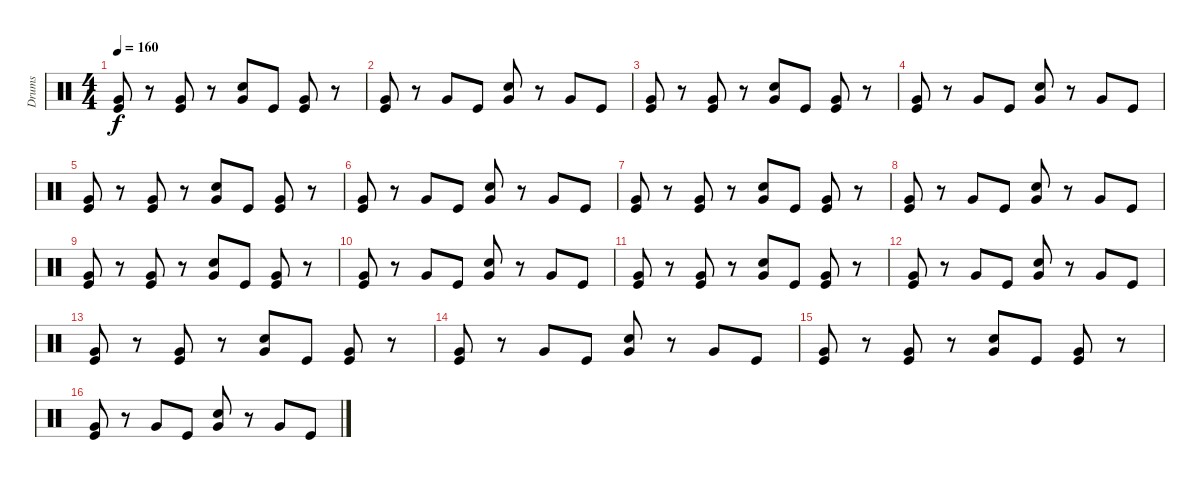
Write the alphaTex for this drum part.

\track ("Drums" "Drums") {instrument percussion}
\staff {score}
\articulation defaults
\ts (4 4)
\tempo 160
\clef neutral
\ks c
("Very Low Tom (hit)" "Kick (hit)").8{dy f} r.8 ("Very Low Tom (hit)" "Kick (hit)").8 r.8 ("Very Low Tom (hit)" "Electric Snare (hit)").8 "Kick (hit)".8 ("Very Low Tom (hit)" "Kick (hit)").8 r.8 |
("Very Low Tom (hit)" "Kick (hit)").8 r.8 "Very Low Tom (hit)".8 "Kick (hit)".8 ("Very Low Tom (hit)" "Electric Snare (hit)").8 r.8 "Very Low Tom (hit)".8 "Kick (hit)".8 |
("Very Low Tom (hit)" "Kick (hit)").8 r.8 ("Very Low Tom (hit)" "Kick (hit)").8 r.8 ("Very Low Tom (hit)" "Electric Snare (hit)").8 "Kick (hit)".8 ("Very Low Tom (hit)" "Kick (hit)").8 r.8 |
("Very Low Tom (hit)" "Kick (hit)").8 r.8 "Very Low Tom (hit)".8 "Kick (hit)".8 ("Very Low Tom (hit)" "Electric Snare (hit)").8 r.8 "Very Low Tom (hit)".8 "Kick (hit)".8 |
("Very Low Tom (hit)" "Kick (hit)").8 r.8 ("Very Low Tom (hit)" "Kick (hit)").8 r.8 ("Very Low Tom (hit)" "Electric Snare (hit)").8 "Kick (hit)".8 ("Very Low Tom (hit)" "Kick (hit)").8 r.8 |
("Very Low Tom (hit)" "Kick (hit)").8 r.8 "Very Low Tom (hit)".8 "Kick (hit)".8 ("Very Low Tom (hit)" "Electric Snare (hit)").8 r.8 "Very Low Tom (hit)".8 "Kick (hit)".8 |
("Very Low Tom (hit)" "Kick (hit)").8 r.8 ("Very Low Tom (hit)" "Kick (hit)").8 r.8 ("Very Low Tom (hit)" "Electric Snare (hit)").8 "Kick (hit)".8 ("Very Low Tom (hit)" "Kick (hit)").8 r.8 |
("Very Low Tom (hit)" "Kick (hit)").8 r.8 "Very Low Tom (hit)".8 "Kick (hit)".8 ("Very Low Tom (hit)" "Electric Snare (hit)").8 r.8 "Very Low Tom (hit)".8 "Kick (hit)".8 |
("Very Low Tom (hit)" "Kick (hit)").8 r.8 ("Very Low Tom (hit)" "Kick (hit)").8 r.8 ("Very Low Tom (hit)" "Electric Snare (hit)").8 "Kick (hit)".8 ("Very Low Tom (hit)" "Kick (hit)").8 r.8 |
("Very Low Tom (hit)" "Kick (hit)").8 r.8 "Very Low Tom (hit)".8 "Kick (hit)".8 ("Very Low Tom (hit)" "Electric Snare (hit)").8 r.8 "Very Low Tom (hit)".8 "Kick (hit)".8 |
("Very Low Tom (hit)" "Kick (hit)").8 r.8 ("Very Low Tom (hit)" "Kick (hit)").8 r.8 ("Very Low Tom (hit)" "Electric Snare (hit)").8 "Kick (hit)".8 ("Very Low Tom (hit)" "Kick (hit)").8 r.8 |
("Very Low Tom (hit)" "Kick (hit)").8 r.8 "Very Low Tom (hit)".8 "Kick (hit)".8 ("Very Low Tom (hit)" "Electric Snare (hit)").8 r.8 "Very Low Tom (hit)".8 "Kick (hit)".8 |
("Very Low Tom (hit)" "Kick (hit)").8 r.8 ("Very Low Tom (hit)" "Kick (hit)").8 r.8 ("Very Low Tom (hit)" "Electric Snare (hit)").8 "Kick (hit)".8 ("Very Low Tom (hit)" "Kick (hit)").8 r.8 |
("Very Low Tom (hit)" "Kick (hit)").8 r.8 "Very Low Tom (hit)".8 "Kick (hit)".8 ("Very Low Tom (hit)" "Electric Snare (hit)").8 r.8 "Very Low Tom (hit)".8 "Kick (hit)".8 |
("Very Low Tom (hit)" "Kick (hit)").8 r.8 ("Very Low Tom (hit)" "Kick (hit)").8 r.8 ("Very Low Tom (hit)" "Electric Snare (hit)").8 "Kick (hit)".8 ("Very Low Tom (hit)" "Kick (hit)").8 r.8 |
("Very Low Tom (hit)" "Kick (hit)").8 r.8 "Very Low Tom (hit)".8 "Kick (hit)".8 ("Very Low Tom (hit)" "Electric Snare (hit)").8 r.8 "Very Low Tom (hit)".8 "Kick (hit)".8
